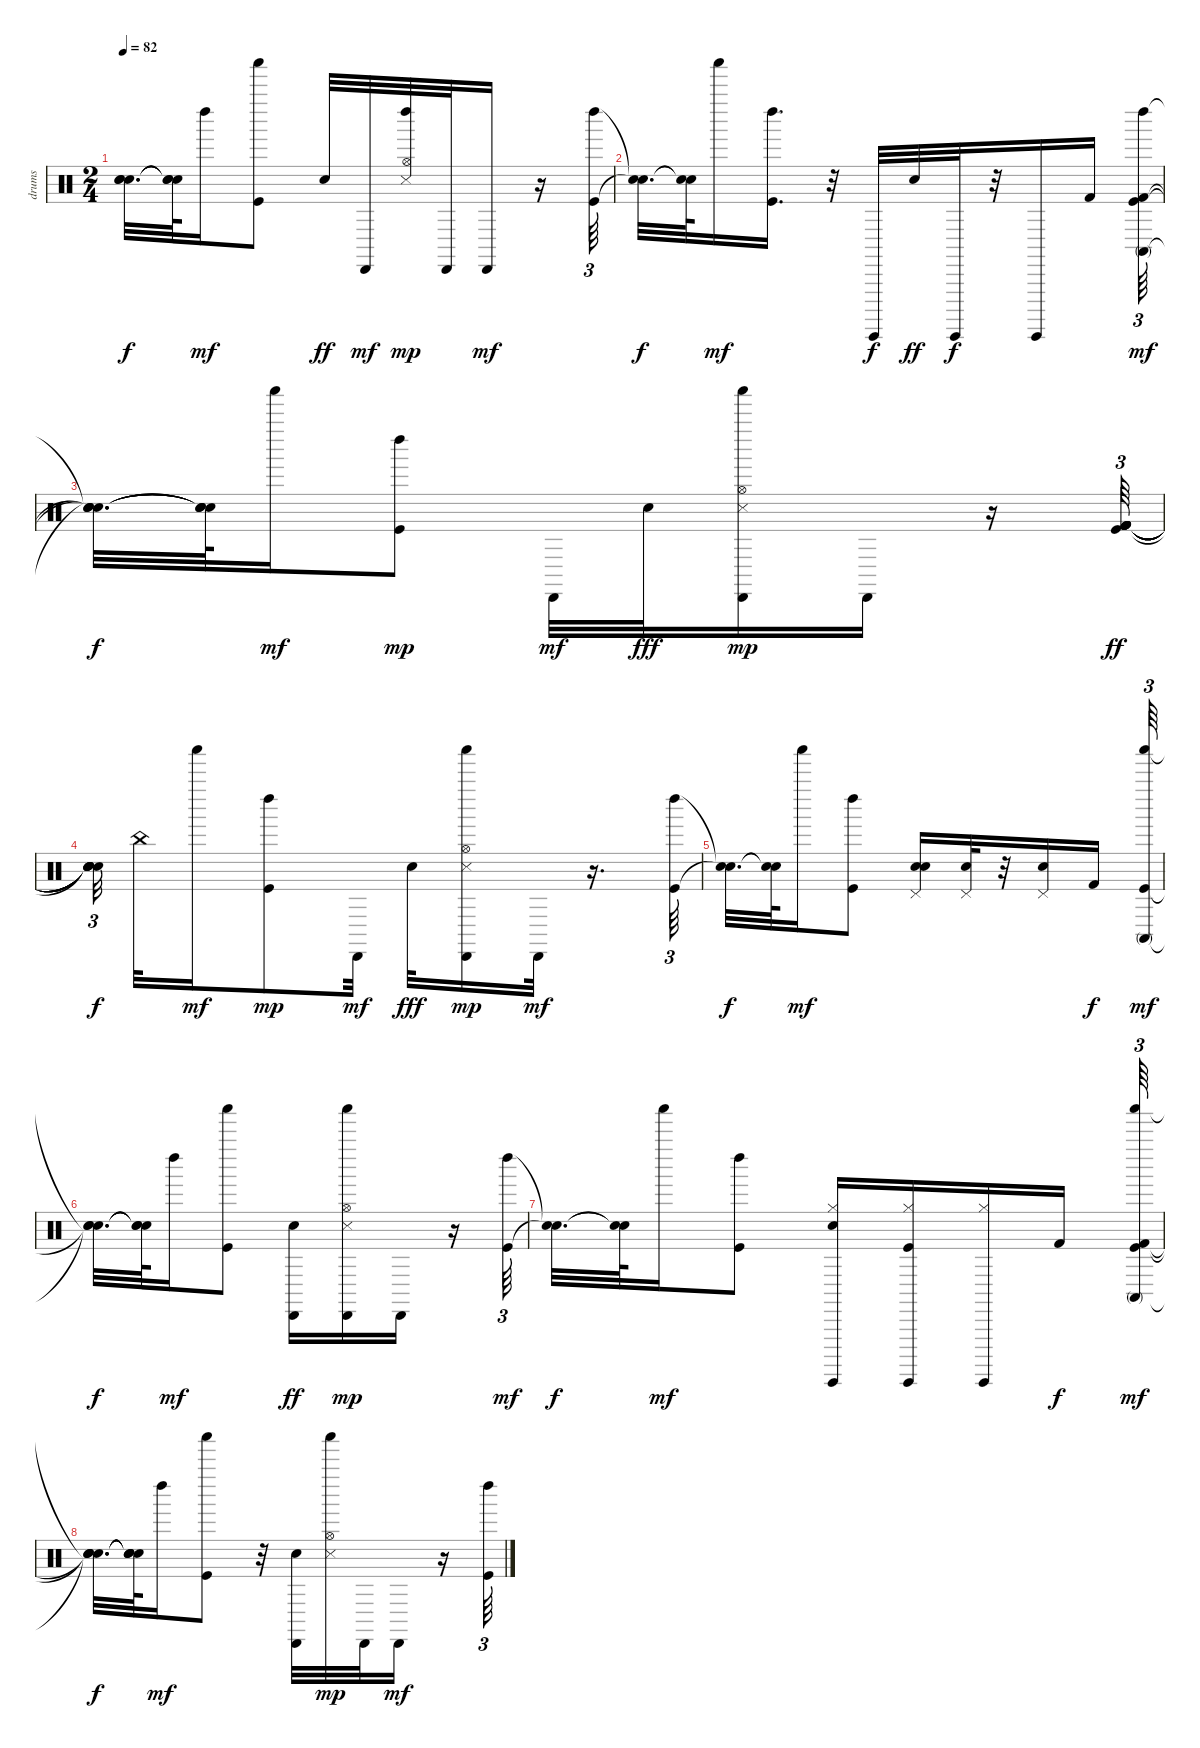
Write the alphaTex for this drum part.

\track ("drums" "drums") {instrument percussion}
\staff {score}
\articulation defaults
\ts (2 4)
\tempo 82
\clef neutral
\ks c
("Snare (hit)"{t} "Snare (hit)"{t} "Snare (hit)"{t}).32{d dy f} ("Snare (hit)"{t} "Snare (hit)"{t} "Snare (hit)"{t}).64 "Left Maraca (hit)".16{dy mf} ("Kick (hit)" "Shaker (hit)").8 "Electric Snare (hit)".32{dy ff} "Cabasa (hit)".32{dy mf} ("Hi-Hat (open)" "Left Maraca (hit)" "Snare (side stick) 3").32{dy mp} "Cabasa (hit)".32 "Cabasa (hit)".16{dy mf} r.16 ("Kick (hit)" "Left Maraca (hit)").64{tu (3 2)} |
("Snare (hit)"{t} "Snare (hit)"{t}).32{d dy f} ("Snare (hit)"{t} "Snare (hit)"{t}).64 "Shaker (hit)".16{dy mf} ("Kick (hit)" "Left Maraca (hit)").16{d} r.32 "Guiro (hit)".32{dy f} "Electric Snare (hit)".32{dy ff} "Guiro (hit)".32{dy f} r.32 "Guiro (hit)".16 "Kick (hit) 2".16 ("Kick (hit) 2" "Kick (hit)" "Left Maraca (hit)" "Conga high (mute)").64{tu (3 2) dy mf} |
("Snare (hit)"{t} "Snare (hit)"{t} "Snare (hit)"{t} "Snare (hit)"{t}).32{d dy f} ("Snare (hit)"{t} "Snare (hit)"{t} "Snare (hit)"{t} "Snare (hit)"{t}).64 "Shaker (hit)".16{dy mf} ("Kick (hit)" "Left Maraca (hit)").8{dy mp} "Cabasa (hit)".32{dy mf} "Electric Snare (hit)".32{dy fff} ("Cabasa (hit)" "Snare (side stick) 3" "Shaker (hit)" "Hi-Hat (open)").16{dy mp} "Cabasa (hit)".16 r.16 ("Kick (hit) 2" "Kick (hit) 2" "Kick (hit) 2" "Kick (hit) 2" "Kick (hit) 2" "Kick (hit)").64{tu (3 2) dy ff} |
("Snare (hit)"{t} "Snare (hit)"{t} "Snare (hit)"{t} "Snare (hit)"{t} "Snare (hit)"{t} "Snare (hit)"{t}).32{tu (3 2) dy f beam splitsecondary} "China (hit)".32 "Shaker (hit)".16{dy mf} ("Kick (hit)" "Left Maraca (hit)").8{dy mp} "Cabasa (hit)".32{dy mf} "Electric Snare (hit)".32{dy fff} ("Cabasa (hit)" "Snare (side stick) 3" "Shaker (hit)" "Hi-Hat (open)").16{dy mp} "Cabasa (hit)".32{dy mf} r.16{d} ("Kick (hit)" "Left Maraca (hit)").64{tu (3 2)} |
("Snare (hit)"{t} "Snare (hit)"{t}).32{d dy f} ("Snare (hit)"{t} "Snare (hit)"{t}).64 "Shaker (hit)".16{dy mf} ("Kick (hit)" "Left Maraca (hit)").8 ("Electric Snare (hit)" "Hand Clap (hit)" "Pedal Hi-Hat (hit)").16 ("Pedal Hi-Hat (hit)" "Hand Clap (hit)").32 r.32 ("Pedal Hi-Hat (hit)" "Hand Clap (hit)").16 "Kick (hit) 2".16{dy f} ("Kick (hit)" "Shaker (hit)" "Conga high (mute)").64{tu (3 2) dy mf} |
("Snare (hit)"{t} "Snare (hit)"{t} "Snare (hit)"{t}).32{d dy f} ("Snare (hit)"{t} "Snare (hit)"{t} "Snare (hit)"{t}).64 "Left Maraca (hit)".16{dy mf} ("Kick (hit)" "Shaker (hit)").8 ("Cabasa (hit)" "Electric Snare (hit)").16{dy ff} ("Cabasa (hit)" "Snare (side stick) 3" "Shaker (hit)" "Hi-Hat (open)").16{dy mp} "Cabasa (hit)".16 r.16 ("Kick (hit)" "Left Maraca (hit)").64{tu (3 2) dy mf} |
("Snare (hit)"{t} "Snare (hit)"{t}).32{d dy f} ("Snare (hit)"{t} "Snare (hit)"{t}).64 "Shaker (hit)".16{dy mf} ("Kick (hit)" "Left Maraca (hit)").8 ("Electric Snare (hit)" "Hi-Hat (closed)" "Guiro (hit)").16 ("Kick (hit)" "Guiro (hit)" "Hi-Hat (closed)").16 ("Guiro (hit)" "Hi-Hat (closed)").16 "Kick (hit) 2".16{dy f} ("Kick (hit) 2" "Kick (hit)" "Shaker (hit)" "Conga high (mute)").64{tu (3 2) dy mf} |
("Snare (hit)"{t} "Snare (hit)"{t} "Snare (hit)"{t} "Snare (hit)"{t}).32{d dy f} ("Snare (hit)"{t} "Snare (hit)"{t} "Snare (hit)"{t} "Snare (hit)"{t}).64 "Left Maraca (hit)".16{dy mf} ("Kick (hit)" "Shaker (hit)").8 r.32 ("Electric Snare (hit)" "Cabasa (hit)").32 ("Snare (side stick) 3" "Shaker (hit)" "Hi-Hat (open)").32{dy mp} "Cabasa (hit)".32 "Cabasa (hit)".16{dy mf} r.16 ("Kick (hit)" "Left Maraca (hit)").64{tu (3 2)}
